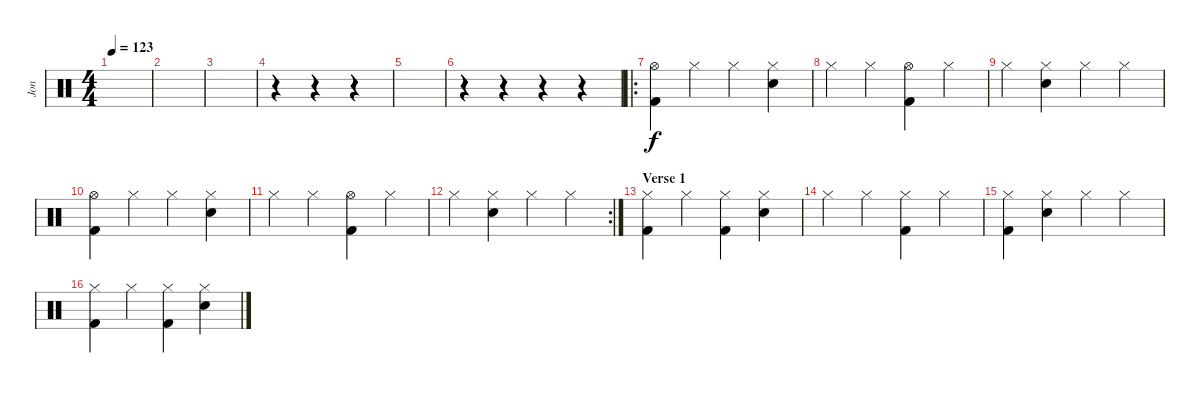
\track ("Jon" "Jon") {instrument percussion}
\staff {score}
\articulation defaults
\ts (4 4)
\tempo 123
\clef neutral
\ks c
|
|
|
r.4 r.4 r.4 |
|
r.4 r.4 r.4 r.4 |
\ro
("Hi-Hat (open)" "Kick (hit) 2").4 "Hi-Hat (closed)".4 "Hi-Hat (closed)".4 ("Hi-Hat (closed)" "Snare (hit) 2").4 |
"Hi-Hat (closed)".4 "Hi-Hat (closed)".4 ("Hi-Hat (open)" "Kick (hit) 2").4 "Hi-Hat (closed)".4 |
"Hi-Hat (closed)".4 ("Hi-Hat (closed)" "Snare (hit) 2").4 "Hi-Hat (closed)".4 "Hi-Hat (closed)".4 |
("Hi-Hat (open)" "Kick (hit) 2").4 "Hi-Hat (closed)".4 "Hi-Hat (closed)".4 ("Hi-Hat (closed)" "Snare (hit) 2").4 |
"Hi-Hat (closed)".4 "Hi-Hat (closed)".4 ("Hi-Hat (open)" "Kick (hit) 2").4 "Hi-Hat (closed)".4 |
\rc 2 "Hi-Hat (closed)".4
("Hi-Hat (closed)" "Snare (hit) 2").4 "Hi-Hat (closed)".4 "Hi-Hat (closed)".4 |
\section ("" "Verse 1")
("Hi-Hat (closed)" "Kick (hit) 2").4 "Hi-Hat (closed)".4 ("Hi-Hat (closed)" "Kick (hit) 2").4 ("Hi-Hat (closed)" "Snare (hit) 2").4 |
"Hi-Hat (closed)".4 "Hi-Hat (closed)".4 ("Hi-Hat (closed)" "Kick (hit) 2").4 "Hi-Hat (closed)".4 |
("Hi-Hat (closed)" "Kick (hit) 2").4 ("Hi-Hat (closed)" "Snare (hit) 2").4 "Hi-Hat (closed)".4 "Hi-Hat (closed)".4 |
("Hi-Hat (closed)" "Kick (hit) 2").4 "Hi-Hat (closed)".4 ("Hi-Hat (closed)" "Kick (hit) 2").4 ("Hi-Hat (closed)" "Snare (hit) 2").4
